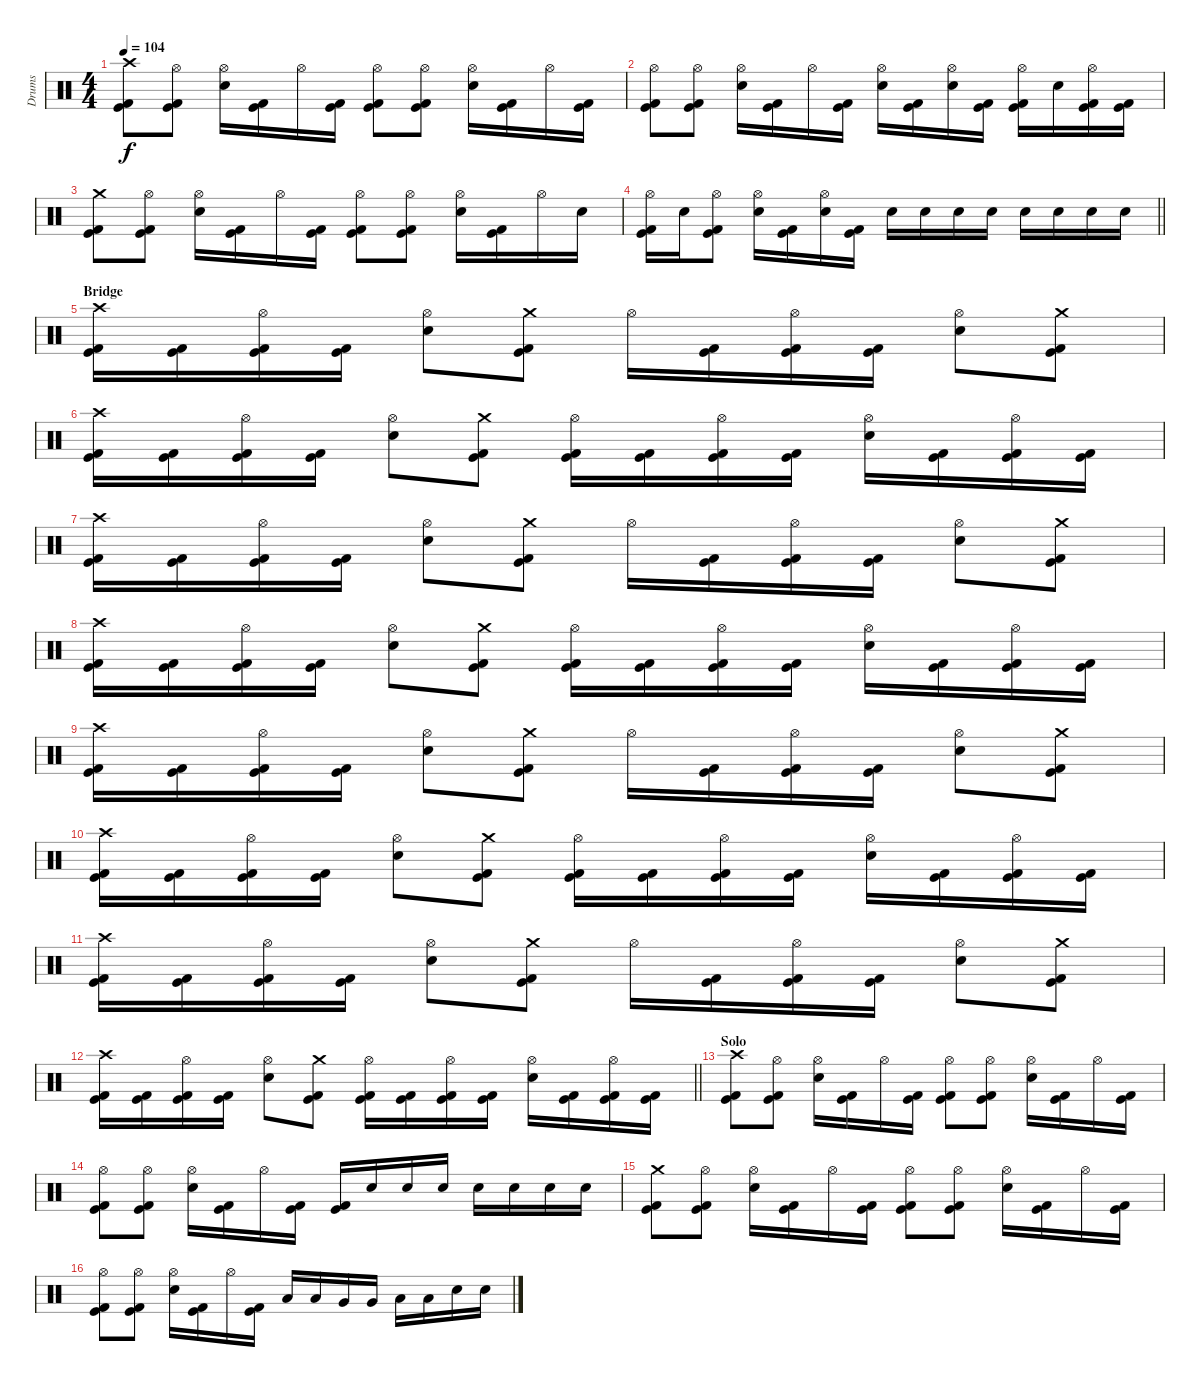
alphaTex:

\track ("Drums" "Drums") {instrument percussion}
\staff {score}
\articulation defaults
\ts (4 4)
\tempo 104
\clef neutral
\ks c
("Crash high (hit)" "Kick (hit)" "Kick (hit) 2").8{dy f} ("Hi-Hat (open)" "Kick (hit)" "Kick (hit) 2").8 ("Hi-Hat (open)" "Electric Snare (hit)").16 ("Kick (hit)" "Kick (hit) 2").16 "Hi-Hat (open)".16 ("Kick (hit)" "Kick (hit) 2").16 ("Hi-Hat (open)" "Kick (hit)" "Kick (hit) 2").8 ("Hi-Hat (open)" "Kick (hit)" "Kick (hit) 2").8 ("Hi-Hat (open)" "Electric Snare (hit)").16 ("Kick (hit)" "Kick (hit) 2").16 "Hi-Hat (open)".16 ("Kick (hit)" "Kick (hit) 2").16 |
("Hi-Hat (open)" "Kick (hit)" "Kick (hit) 2").8 ("Hi-Hat (open)" "Kick (hit)" "Kick (hit) 2").8 ("Hi-Hat (open)" "Electric Snare (hit)").16 ("Kick (hit)" "Kick (hit) 2").16 "Hi-Hat (open)".16 ("Kick (hit)" "Kick (hit) 2").16 ("Hi-Hat (open)" "Electric Snare (hit)").16 ("Kick (hit)" "Kick (hit) 2").16 ("Hi-Hat (open)" "Electric Snare (hit)").16 ("Kick (hit)" "Kick (hit) 2").16 ("Hi-Hat (open)" "Kick (hit)" "Kick (hit) 2").16 "Electric Snare (hit)".16 ("Hi-Hat (open)" "Kick (hit)" "Kick (hit) 2").16 ("Kick (hit)" "Kick (hit) 2").16 |
("Crash medium (hit)" "Kick (hit)" "Kick (hit) 2").8 ("Hi-Hat (open)" "Kick (hit)" "Kick (hit) 2").8 ("Hi-Hat (open)" "Electric Snare (hit)").16 ("Kick (hit)" "Kick (hit) 2").16 "Hi-Hat (open)".16 ("Kick (hit)" "Kick (hit) 2").16 ("Hi-Hat (open)" "Kick (hit)" "Kick (hit) 2").8 ("Hi-Hat (open)" "Kick (hit)" "Kick (hit) 2").8 ("Hi-Hat (open)" "Electric Snare (hit)").16 ("Kick (hit)" "Kick (hit) 2").16 "Hi-Hat (open)".16 "Electric Snare (hit)".16 |
\barLineRight lightlight
("Hi-Hat (open)" "Kick (hit)" "Kick (hit) 2").16 "Electric Snare (hit)".16 ("Hi-Hat (open)" "Kick (hit)" "Kick (hit) 2").8 ("Hi-Hat (open)" "Electric Snare (hit)").16 ("Kick (hit)" "Kick (hit) 2").16 ("Hi-Hat (open)" "Electric Snare (hit)").16 ("Kick (hit)" "Kick (hit) 2").16 "Electric Snare (hit)".16 "Electric Snare (hit)".16 "Electric Snare (hit)".16 "Electric Snare (hit)".16 "Electric Snare (hit)".16 "Electric Snare (hit)".16 "Electric Snare (hit)".16 "Electric Snare (hit)".16 |
\section ("" "Bridge")
("Crash high (hit)" "Kick (hit)" "Kick (hit) 2").16 ("Kick (hit)" "Kick (hit) 2").16 ("Hi-Hat (open)" "Kick (hit)" "Kick (hit) 2").16 ("Kick (hit)" "Kick (hit) 2").16 ("Hi-Hat (open)" "Electric Snare (hit)").8 ("Crash medium (hit)" "Kick (hit)" "Kick (hit) 2").8 "Hi-Hat (open)".16 ("Kick (hit)" "Kick (hit) 2").16 ("Hi-Hat (open)" "Kick (hit)" "Kick (hit) 2").16 ("Kick (hit)" "Kick (hit) 2").16 ("Hi-Hat (open)" "Electric Snare (hit)").8 ("Crash medium (hit)" "Kick (hit)" "Kick (hit) 2").8 |
("Crash high (hit)" "Kick (hit)" "Kick (hit) 2").16 ("Kick (hit)" "Kick (hit) 2").16 ("Hi-Hat (open)" "Kick (hit)" "Kick (hit) 2").16 ("Kick (hit)" "Kick (hit) 2").16 ("Hi-Hat (open)" "Electric Snare (hit)").8 ("Crash medium (hit)" "Kick (hit)" "Kick (hit) 2").8 ("Hi-Hat (open)" "Kick (hit)" "Kick (hit) 2").16 ("Kick (hit)" "Kick (hit) 2").16 ("Hi-Hat (open)" "Kick (hit)" "Kick (hit) 2").16 ("Kick (hit)" "Kick (hit) 2").16 ("Hi-Hat (open)" "Electric Snare (hit)").16 ("Kick (hit)" "Kick (hit) 2").16 ("Hi-Hat (open)" "Kick (hit)" "Kick (hit) 2").16 ("Kick (hit)" "Kick (hit) 2").16 |
("Crash high (hit)" "Kick (hit)" "Kick (hit) 2").16 ("Kick (hit)" "Kick (hit) 2").16 ("Hi-Hat (open)" "Kick (hit)" "Kick (hit) 2").16 ("Kick (hit)" "Kick (hit) 2").16 ("Hi-Hat (open)" "Electric Snare (hit)").8 ("Crash medium (hit)" "Kick (hit)" "Kick (hit) 2").8 "Hi-Hat (open)".16 ("Kick (hit)" "Kick (hit) 2").16 ("Hi-Hat (open)" "Kick (hit)" "Kick (hit) 2").16 ("Kick (hit)" "Kick (hit) 2").16 ("Hi-Hat (open)" "Electric Snare (hit)").8 ("Crash medium (hit)" "Kick (hit)" "Kick (hit) 2").8 |
("Crash high (hit)" "Kick (hit)" "Kick (hit) 2").16 ("Kick (hit)" "Kick (hit) 2").16 ("Hi-Hat (open)" "Kick (hit)" "Kick (hit) 2").16 ("Kick (hit)" "Kick (hit) 2").16 ("Hi-Hat (open)" "Electric Snare (hit)").8 ("Crash medium (hit)" "Kick (hit)" "Kick (hit) 2").8 ("Hi-Hat (open)" "Kick (hit)" "Kick (hit) 2").16 ("Kick (hit)" "Kick (hit) 2").16 ("Hi-Hat (open)" "Kick (hit)" "Kick (hit) 2").16 ("Kick (hit)" "Kick (hit) 2").16 ("Hi-Hat (open)" "Electric Snare (hit)").16 ("Kick (hit)" "Kick (hit) 2").16 ("Hi-Hat (open)" "Kick (hit)" "Kick (hit) 2").16 ("Kick (hit)" "Kick (hit) 2").16 |
("Crash high (hit)" "Kick (hit)" "Kick (hit) 2").16 ("Kick (hit)" "Kick (hit) 2").16 ("Hi-Hat (open)" "Kick (hit)" "Kick (hit) 2").16 ("Kick (hit)" "Kick (hit) 2").16 ("Hi-Hat (open)" "Electric Snare (hit)").8 ("Crash medium (hit)" "Kick (hit)" "Kick (hit) 2").8 "Hi-Hat (open)".16 ("Kick (hit)" "Kick (hit) 2").16 ("Hi-Hat (open)" "Kick (hit)" "Kick (hit) 2").16 ("Kick (hit)" "Kick (hit) 2").16 ("Hi-Hat (open)" "Electric Snare (hit)").8 ("Crash medium (hit)" "Kick (hit)" "Kick (hit) 2").8 |
("Crash high (hit)" "Kick (hit)" "Kick (hit) 2").16 ("Kick (hit)" "Kick (hit) 2").16 ("Hi-Hat (open)" "Kick (hit)" "Kick (hit) 2").16 ("Kick (hit)" "Kick (hit) 2").16 ("Hi-Hat (open)" "Electric Snare (hit)").8 ("Crash medium (hit)" "Kick (hit)" "Kick (hit) 2").8 ("Hi-Hat (open)" "Kick (hit)" "Kick (hit) 2").16 ("Kick (hit)" "Kick (hit) 2").16 ("Hi-Hat (open)" "Kick (hit)" "Kick (hit) 2").16 ("Kick (hit)" "Kick (hit) 2").16 ("Hi-Hat (open)" "Electric Snare (hit)").16 ("Kick (hit)" "Kick (hit) 2").16 ("Hi-Hat (open)" "Kick (hit)" "Kick (hit) 2").16 ("Kick (hit)" "Kick (hit) 2").16 |
("Crash high (hit)" "Kick (hit)" "Kick (hit) 2").16 ("Kick (hit)" "Kick (hit) 2").16 ("Hi-Hat (open)" "Kick (hit)" "Kick (hit) 2").16 ("Kick (hit)" "Kick (hit) 2").16 ("Hi-Hat (open)" "Electric Snare (hit)").8 ("Crash medium (hit)" "Kick (hit)" "Kick (hit) 2").8 "Hi-Hat (open)".16 ("Kick (hit)" "Kick (hit) 2").16 ("Hi-Hat (open)" "Kick (hit)" "Kick (hit) 2").16 ("Kick (hit)" "Kick (hit) 2").16 ("Hi-Hat (open)" "Electric Snare (hit)").8 ("Crash medium (hit)" "Kick (hit)" "Kick (hit) 2").8 |
\barLineRight lightlight
("Crash high (hit)" "Kick (hit)" "Kick (hit) 2").16 ("Kick (hit)" "Kick (hit) 2").16 ("Hi-Hat (open)" "Kick (hit)" "Kick (hit) 2").16 ("Kick (hit)" "Kick (hit) 2").16 ("Hi-Hat (open)" "Electric Snare (hit)").8 ("Crash medium (hit)" "Kick (hit)" "Kick (hit) 2").8 ("Hi-Hat (open)" "Kick (hit)" "Kick (hit) 2").16 ("Kick (hit)" "Kick (hit) 2").16 ("Hi-Hat (open)" "Kick (hit)" "Kick (hit) 2").16 ("Kick (hit)" "Kick (hit) 2").16 ("Hi-Hat (open)" "Electric Snare (hit)").16 ("Kick (hit)" "Kick (hit) 2").16 ("Hi-Hat (open)" "Kick (hit)" "Kick (hit) 2").16 ("Kick (hit)" "Kick (hit) 2").16 |
\section ("" "Solo")
("Crash high (hit)" "Kick (hit)" "Kick (hit) 2").8 ("Hi-Hat (open)" "Kick (hit)" "Kick (hit) 2").8 ("Hi-Hat (open)" "Electric Snare (hit)").16 ("Kick (hit)" "Kick (hit) 2").16 "Hi-Hat (open)".16 ("Kick (hit)" "Kick (hit) 2").16 ("Hi-Hat (open)" "Kick (hit)" "Kick (hit) 2").8 ("Hi-Hat (open)" "Kick (hit)" "Kick (hit) 2").8 ("Hi-Hat (open)" "Electric Snare (hit)").16 ("Kick (hit)" "Kick (hit) 2").16 "Hi-Hat (open)".16 ("Kick (hit)" "Kick (hit) 2").16 |
("Hi-Hat (open)" "Kick (hit)" "Kick (hit) 2").8 ("Hi-Hat (open)" "Kick (hit)" "Kick (hit) 2").8 ("Hi-Hat (open)" "Electric Snare (hit)").16 ("Kick (hit)" "Kick (hit) 2").16 "Hi-Hat (open)".16 ("Kick (hit)" "Kick (hit) 2").16 ("Kick (hit)" "Kick (hit) 2").16 "Electric Snare (hit)".16 "Electric Snare (hit)".16 "Electric Snare (hit)".16 "Electric Snare (hit)".16 "Electric Snare (hit)".16 "Electric Snare (hit)".16 "Electric Snare (hit)".16 |
("Crash medium (hit)" "Kick (hit)" "Kick (hit) 2").8 ("Hi-Hat (open)" "Kick (hit)" "Kick (hit) 2").8 ("Hi-Hat (open)" "Electric Snare (hit)").16 ("Kick (hit)" "Kick (hit) 2").16 "Hi-Hat (open)".16 ("Kick (hit)" "Kick (hit) 2").16 ("Hi-Hat (open)" "Kick (hit)" "Kick (hit) 2").8 ("Hi-Hat (open)" "Kick (hit)" "Kick (hit) 2").8 ("Hi-Hat (open)" "Electric Snare (hit)").16 ("Kick (hit)" "Kick (hit) 2").16 "Hi-Hat (open)".16 ("Kick (hit)" "Kick (hit) 2").16 |
("Hi-Hat (open)" "Kick (hit)" "Kick (hit) 2").8 ("Hi-Hat (open)" "Kick (hit)" "Kick (hit) 2").8 ("Hi-Hat (open)" "Electric Snare (hit)").16 ("Kick (hit)" "Kick (hit) 2").16 "Hi-Hat (open)".16 ("Kick (hit)" "Kick (hit) 2").16 "Low Tom (hit)".16 "Low Tom (hit)".16 "Very Low Tom (hit)".16 "Very Low Tom (hit)".16 "Low Floor Tom (hit)".16 "Low Floor Tom (hit)".16 "Electric Snare (hit)".16 "Electric Snare (hit)".16
